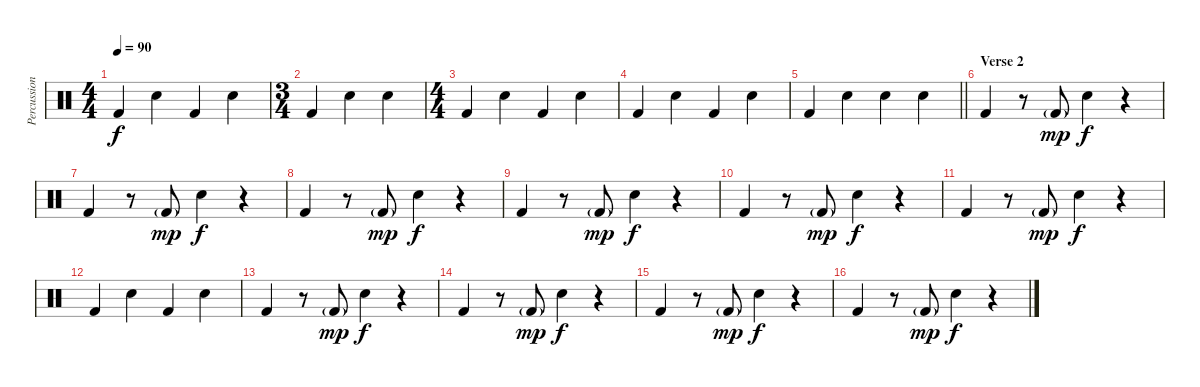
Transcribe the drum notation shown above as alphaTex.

\track ("Percussion" "Percussion") {instrument percussion}
\staff {score}
\articulation defaults
\ts (4 4)
\tempo 90
\clef neutral
\ks c "Kick (hit) 2".4{dy f} "Snare (hit) 2".4 "Kick (hit) 2".4 "Snare (hit) 2".4
|
\ts (3 4)
"Kick (hit) 2".4 "Snare (hit) 2".4 "Snare (hit) 2".4 |
\ts (4 4)
"Kick (hit) 2".4 "Snare (hit) 2".4 "Kick (hit) 2".4 "Snare (hit) 2".4 |
"Kick (hit) 2".4 "Snare (hit) 2".4 "Kick (hit) 2".4 "Snare (hit) 2".4 |
\barLineRight lightlight "Kick (hit) 2".4 "Snare (hit) 2".4 "Snare (hit) 2".4 "Snare (hit) 2".4
|
\section ("" "Verse 2")
"Kick (hit) 2".4 r.8 "Kick (hit) 2"{g}.8{dy mp} "Snare (hit) 2".4{dy f} r.4 |
"Kick (hit) 2".4 r.8 "Kick (hit) 2"{g}.8{dy mp} "Snare (hit) 2".4{dy f} r.4 |
"Kick (hit) 2".4 r.8 "Kick (hit) 2"{g}.8{dy mp} "Snare (hit) 2".4{dy f} r.4 |
"Kick (hit) 2".4 r.8 "Kick (hit) 2"{g}.8{dy mp} "Snare (hit) 2".4{dy f} r.4 |
"Kick (hit) 2".4 r.8 "Kick (hit) 2"{g}.8{dy mp} "Snare (hit) 2".4{dy f} r.4 |
"Kick (hit) 2".4 r.8 "Kick (hit) 2"{g}.8{dy mp} "Snare (hit) 2".4{dy f} r.4 |
"Kick (hit) 2".4 "Snare (hit) 2".4 "Kick (hit) 2".4 "Snare (hit) 2".4 |
"Kick (hit) 2".4 r.8 "Kick (hit) 2"{g}.8{dy mp} "Snare (hit) 2".4{dy f} r.4 |
"Kick (hit) 2".4 r.8 "Kick (hit) 2"{g}.8{dy mp} "Snare (hit) 2".4{dy f} r.4 |
"Kick (hit) 2".4 r.8 "Kick (hit) 2"{g}.8{dy mp} "Snare (hit) 2".4{dy f} r.4 |
"Kick (hit) 2".4 r.8 "Kick (hit) 2"{g}.8{dy mp} "Snare (hit) 2".4{dy f} r.4
